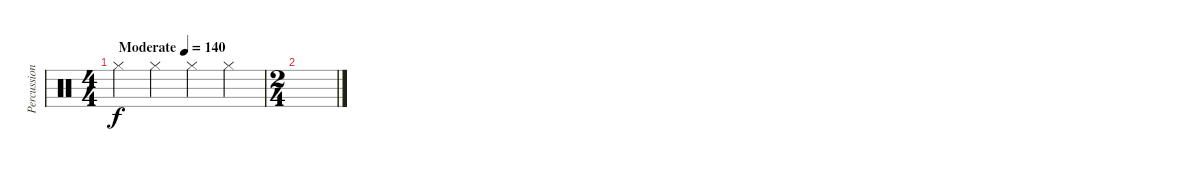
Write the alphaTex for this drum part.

\track ("Percussion" "Percussion") {instrument percussion}
\staff {score}
\articulation defaults
\ts (4 4)
\tempo (140 "Moderate")
\clef neutral
\ks c "Hi-Hat (closed)".4{dy f} "Hi-Hat (closed)".4 "Hi-Hat (closed)".4 "Hi-Hat (closed)".4
|
\ts (2 4)
